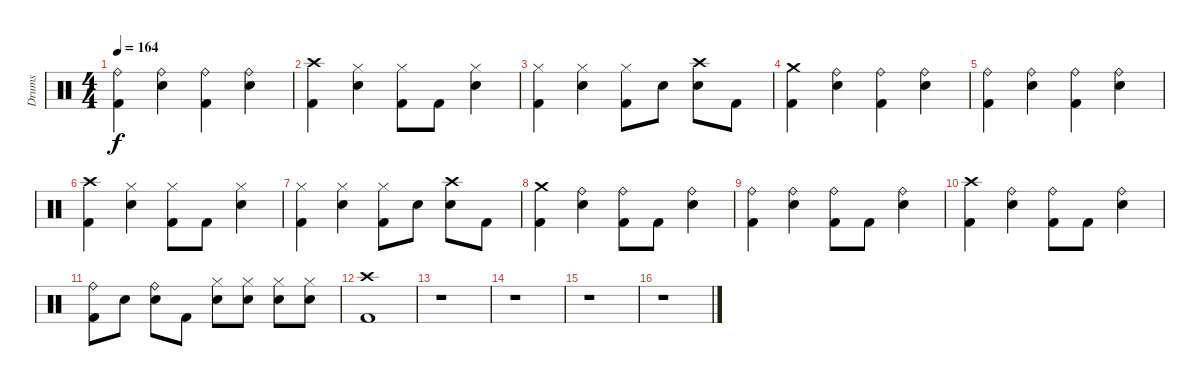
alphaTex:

\track ("Drums" "Drums") {instrument percussion}
\staff {score}
\articulation defaults
\ts (4 4)
\tempo 164
\clef neutral
\ks c
("Kick (hit) 2" "Ride (bell)").4{dy f} ("Snare (hit) 2" "Ride (bell)").4 ("Kick (hit) 2" "Ride (bell)").4 ("Snare (hit) 2" "Ride (bell)").4 |
("Kick (hit) 2" "Crash high (hit)").4 ("Snare (hit) 2" "Hi-Hat (closed)").4 ("Kick (hit) 2" "Hi-Hat (closed)").8 "Kick (hit) 2".8 ("Snare (hit) 2" "Hi-Hat (closed)").4 |
("Kick (hit) 2" "Hi-Hat (closed)").4 ("Snare (hit) 2" "Hi-Hat (closed)").4 ("Kick (hit) 2" "Hi-Hat (closed)").8 "Snare (hit) 2".8 ("Snare (hit) 2" "Crash high (hit)").8 "Kick (hit) 2".8 |
("Kick (hit) 2" "Crash medium (hit)").4 ("Snare (hit) 2" "Ride (bell)").4 ("Kick (hit) 2" "Ride (bell)").4 ("Snare (hit) 2" "Ride (bell)").4 |
("Kick (hit) 2" "Ride (bell)").4 ("Snare (hit) 2" "Ride (bell)").4 ("Kick (hit) 2" "Ride (bell)").4 ("Snare (hit) 2" "Ride (bell)").4 |
("Kick (hit) 2" "Crash high (hit)").4 ("Snare (hit) 2" "Hi-Hat (closed)").4 ("Kick (hit) 2" "Hi-Hat (closed)").8 "Kick (hit) 2".8 ("Snare (hit) 2" "Hi-Hat (closed)").4 |
("Kick (hit) 2" "Hi-Hat (closed)").4 ("Snare (hit) 2" "Hi-Hat (closed)").4 ("Kick (hit) 2" "Hi-Hat (closed)").8 "Snare (hit) 2".8 ("Snare (hit) 2" "Crash high (hit)").8 "Kick (hit) 2".8 |
("Kick (hit) 2" "Crash medium (hit)").4 ("Snare (hit) 2" "Ride (bell)").4 ("Kick (hit) 2" "Ride (bell)").8 "Kick (hit) 2".8 ("Snare (hit) 2" "Ride (bell)").4 |
("Kick (hit) 2" "Ride (bell)").4 ("Snare (hit) 2" "Ride (bell)").4 ("Kick (hit) 2" "Ride (bell)").8 "Kick (hit) 2".8 ("Snare (hit) 2" "Ride (bell)").4 |
("Kick (hit) 2" "Crash high (hit)").4 ("Snare (hit) 2" "Ride (bell)").4 ("Kick (hit) 2" "Ride (bell)").8 "Kick (hit) 2".8 ("Snare (hit) 2" "Ride (bell)").4 |
("Kick (hit) 2" "Ride (bell)").8 "Snare (hit) 2".8 ("Snare (hit) 2" "Ride (bell)").8 "Kick (hit) 2".8 ("Snare (hit) 2" "Hi-Hat (closed)").8 ("Snare (hit) 2" "Hi-Hat (closed)").8 ("Snare (hit) 2" "Hi-Hat (closed)").8 ("Snare (hit) 2" "Hi-Hat (closed)").8 |
("Kick (hit) 2" "Crash high (hit)").1 |
r.1 |
r.1 |
r.1 |
r.1
